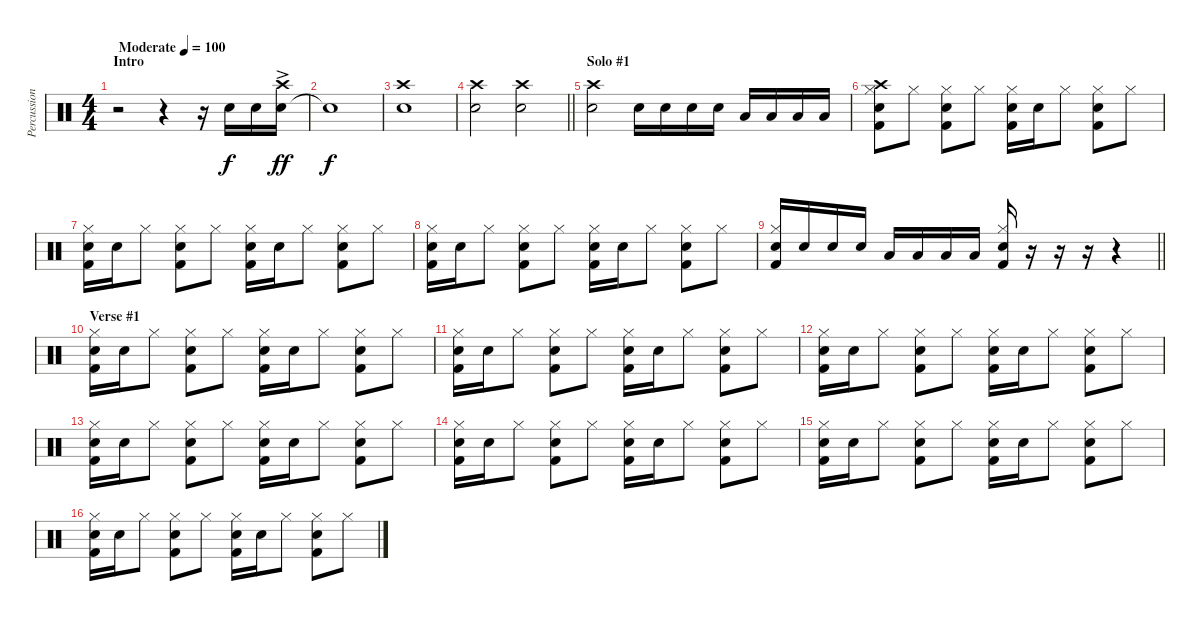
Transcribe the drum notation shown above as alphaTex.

\track ("Percussion" "Percussion") {instrument percussion}
\staff {score}
\articulation defaults
\ts (4 4)
\section ("" "Intro")
\tempo (100 "Moderate")
\clef neutral
\ks c
r.2{dy f} r.4 r.16 "Snare (hit) 2".16 "Snare (hit) 2".16 ("Snare (hit) 2"{ac} "Crash high (hit)").16{dy ff} |
"Snare (hit)"{t}.1{dy f} |
("Snare (hit) 2" "Crash high (hit)").1 |
\barLineRight lightlight
("Snare (hit) 2" "Crash high (hit)").2 ("Snare (hit) 2" "Crash high (hit)").2 |
\section ("" "Solo #1")
("Snare (hit) 2" "Crash high (hit)").2 "Snare (hit) 2".16 "Snare (hit) 2".16 "Snare (hit) 2".16 "Snare (hit) 2".16 "Low Floor Tom (hit)".16 "Low Floor Tom (hit)".16 "Low Floor Tom (hit)".16 "Low Floor Tom (hit)".16 |
("Snare (hit) 2" "Crash high (hit)" "Hi-Hat (closed)" "Kick (hit) 2").8 "Hi-Hat (closed)".8 ("Snare (hit) 2" "Hi-Hat (closed)" "Kick (hit) 2").8 "Hi-Hat (closed)".8 ("Snare (hit) 2" "Hi-Hat (closed)" "Kick (hit) 2").16 "Snare (hit) 2".16 "Hi-Hat (closed)".8 ("Snare (hit) 2" "Hi-Hat (closed)" "Kick (hit) 2").8 "Hi-Hat (closed)".8 |
("Snare (hit) 2" "Hi-Hat (closed)" "Kick (hit) 2").16 "Snare (hit) 2".16 "Hi-Hat (closed)".8 ("Snare (hit) 2" "Hi-Hat (closed)" "Kick (hit) 2").8 "Hi-Hat (closed)".8 ("Snare (hit) 2" "Hi-Hat (closed)" "Kick (hit) 2").16 "Snare (hit) 2".16 "Hi-Hat (closed)".8 ("Snare (hit) 2" "Hi-Hat (closed)" "Kick (hit) 2").8 "Hi-Hat (closed)".8 |
("Snare (hit) 2" "Hi-Hat (closed)" "Kick (hit) 2").16 "Snare (hit) 2".16 "Hi-Hat (closed)".8 ("Snare (hit) 2" "Hi-Hat (closed)" "Kick (hit) 2").8 "Hi-Hat (closed)".8 ("Snare (hit) 2" "Hi-Hat (closed)" "Kick (hit) 2").16 "Snare (hit) 2".16 "Hi-Hat (closed)".8 ("Snare (hit) 2" "Hi-Hat (closed)" "Kick (hit) 2").8 "Hi-Hat (closed)".8 |
\barLineRight lightlight
("Snare (hit) 2" "Hi-Hat (closed)" "Kick (hit) 2").16 "Snare (hit) 2".16 "Snare (hit) 2".16 "Snare (hit) 2".16 "Low Tom (hit)".16 "Low Tom (hit)".16 "Low Tom (hit)".16 "Low Tom (hit)".16 ("Snare (hit) 2" "Hi-Hat (closed)" "Kick (hit) 2").16 r.16 r.16 r.16 r.4 |
\section ("" "Verse #1")
("Snare (hit) 2" "Hi-Hat (closed)" "Kick (hit) 2").16 "Snare (hit) 2".16 "Hi-Hat (closed)".8 ("Snare (hit) 2" "Hi-Hat (closed)" "Kick (hit) 2").8 "Hi-Hat (closed)".8 ("Snare (hit) 2" "Hi-Hat (closed)" "Kick (hit) 2").16 "Snare (hit) 2".16 "Hi-Hat (closed)".8 ("Snare (hit) 2" "Hi-Hat (closed)" "Kick (hit) 2").8 "Hi-Hat (closed)".8 |
("Snare (hit) 2" "Hi-Hat (closed)" "Kick (hit) 2").16 "Snare (hit) 2".16 "Hi-Hat (closed)".8 ("Snare (hit) 2" "Hi-Hat (closed)" "Kick (hit) 2").8 "Hi-Hat (closed)".8 ("Snare (hit) 2" "Hi-Hat (closed)" "Kick (hit) 2").16 "Snare (hit) 2".16 "Hi-Hat (closed)".8 ("Snare (hit) 2" "Hi-Hat (closed)" "Kick (hit) 2").8 "Hi-Hat (closed)".8 |
("Snare (hit) 2" "Hi-Hat (closed)" "Kick (hit) 2").16 "Snare (hit) 2".16 "Hi-Hat (closed)".8 ("Snare (hit) 2" "Hi-Hat (closed)" "Kick (hit) 2").8 "Hi-Hat (closed)".8 ("Snare (hit) 2" "Hi-Hat (closed)" "Kick (hit) 2").16 "Snare (hit) 2".16 "Hi-Hat (closed)".8 ("Snare (hit) 2" "Hi-Hat (closed)" "Kick (hit) 2").8 "Hi-Hat (closed)".8 |
("Snare (hit) 2" "Hi-Hat (closed)" "Kick (hit) 2").16 "Snare (hit) 2".16 "Hi-Hat (closed)".8 ("Snare (hit) 2" "Hi-Hat (closed)" "Kick (hit) 2").8 "Hi-Hat (closed)".8 ("Snare (hit) 2" "Hi-Hat (closed)" "Kick (hit) 2").16 "Snare (hit) 2".16 "Hi-Hat (closed)".8 ("Snare (hit) 2" "Hi-Hat (closed)" "Kick (hit) 2").8 "Hi-Hat (closed)".8 |
("Snare (hit) 2" "Hi-Hat (closed)" "Kick (hit) 2").16 "Snare (hit) 2".16 "Hi-Hat (closed)".8 ("Snare (hit) 2" "Hi-Hat (closed)" "Kick (hit) 2").8 "Hi-Hat (closed)".8 ("Snare (hit) 2" "Hi-Hat (closed)" "Kick (hit) 2").16 "Snare (hit) 2".16 "Hi-Hat (closed)".8 ("Snare (hit) 2" "Hi-Hat (closed)" "Kick (hit) 2").8 "Hi-Hat (closed)".8 |
("Snare (hit) 2" "Hi-Hat (closed)" "Kick (hit) 2").16 "Snare (hit) 2".16 "Hi-Hat (closed)".8 ("Snare (hit) 2" "Hi-Hat (closed)" "Kick (hit) 2").8 "Hi-Hat (closed)".8 ("Snare (hit) 2" "Hi-Hat (closed)" "Kick (hit) 2").16 "Snare (hit) 2".16 "Hi-Hat (closed)".8 ("Snare (hit) 2" "Hi-Hat (closed)" "Kick (hit) 2").8 "Hi-Hat (closed)".8 |
("Snare (hit) 2" "Hi-Hat (closed)" "Kick (hit) 2").16 "Snare (hit) 2".16 "Hi-Hat (closed)".8 ("Snare (hit) 2" "Hi-Hat (closed)" "Kick (hit) 2").8 "Hi-Hat (closed)".8 ("Snare (hit) 2" "Hi-Hat (closed)" "Kick (hit) 2").16 "Snare (hit) 2".16 "Hi-Hat (closed)".8 ("Snare (hit) 2" "Hi-Hat (closed)" "Kick (hit) 2").8 "Hi-Hat (closed)".8
